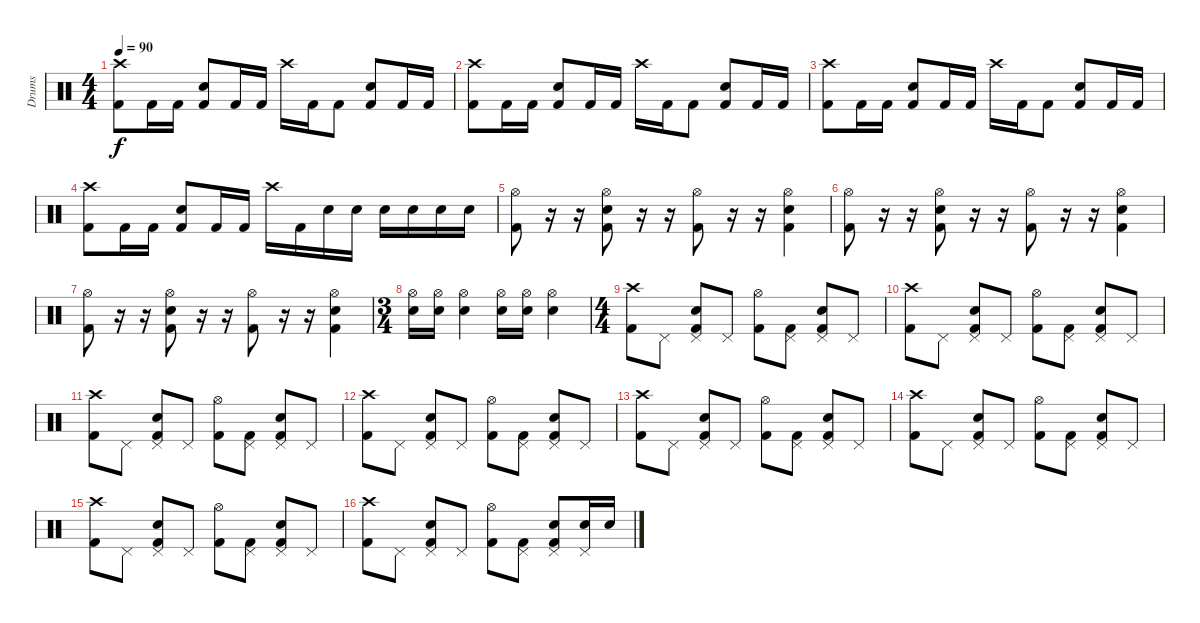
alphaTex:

\track ("Drums" "Drums") {instrument percussion}
\staff {score}
\articulation defaults
\ts (4 4)
\tempo 90
\clef neutral
\ks c
("Crash high (hit)" "Kick (hit) 2").8{dy f} "Kick (hit) 2".16 "Kick (hit) 2".16 ("Electric Snare (hit)" "Kick (hit) 2").8 "Kick (hit) 2".16 "Kick (hit) 2".16 "Crash high (hit)".16 "Kick (hit) 2".16 "Kick (hit) 2".8 ("Snare (hit) 2" "Kick (hit) 2").8 "Kick (hit) 2".16 "Kick (hit) 2".16 |
("Crash high (hit)" "Kick (hit) 2").8 "Kick (hit) 2".16 "Kick (hit) 2".16 ("Electric Snare (hit)" "Kick (hit) 2").8 "Kick (hit) 2".16 "Kick (hit) 2".16 "Crash high (hit)".16 "Kick (hit) 2".16 "Kick (hit) 2".8 ("Snare (hit) 2" "Kick (hit) 2").8 "Kick (hit) 2".16 "Kick (hit) 2".16 |
("Crash high (hit)" "Kick (hit) 2").8 "Kick (hit) 2".16 "Kick (hit) 2".16 ("Electric Snare (hit)" "Kick (hit) 2").8 "Kick (hit) 2".16 "Kick (hit) 2".16 "Crash high (hit)".16 "Kick (hit) 2".16 "Kick (hit) 2".8 ("Snare (hit) 2" "Kick (hit) 2").8 "Kick (hit) 2".16 "Kick (hit) 2".16 |
("Crash high (hit)" "Kick (hit) 2").8 "Kick (hit) 2".16 "Kick (hit) 2".16 ("Electric Snare (hit)" "Kick (hit) 2").8 "Kick (hit) 2".16 "Kick (hit) 2".16 "Crash high (hit)".16 "Kick (hit) 2".16 "Electric Snare (hit)".16 "Electric Snare (hit)".16 "Electric Snare (hit)".16 "Electric Snare (hit)".16 "Electric Snare (hit)".16 "Electric Snare (hit)".16 |
("Hi-Hat (open)" "Kick (hit) 2").8 r.16 r.16 ("Hi-Hat (open)" "Electric Snare (hit)" "Kick (hit) 2").8 r.16 r.16 ("Hi-Hat (open)" "Kick (hit) 2").8 r.16 r.16 ("Hi-Hat (open)" "Electric Snare (hit)" "Kick (hit) 2").4 |
("Hi-Hat (open)" "Kick (hit) 2").8 r.16 r.16 ("Hi-Hat (open)" "Electric Snare (hit)" "Kick (hit) 2").8 r.16 r.16 ("Hi-Hat (open)" "Kick (hit) 2").8 r.16 r.16 ("Hi-Hat (open)" "Electric Snare (hit)" "Kick (hit) 2").4 |
("Hi-Hat (open)" "Kick (hit) 2").8 r.16 r.16 ("Hi-Hat (open)" "Electric Snare (hit)" "Kick (hit) 2").8 r.16 r.16 ("Hi-Hat (open)" "Kick (hit) 2").8 r.16 r.16 ("Hi-Hat (open)" "Electric Snare (hit)" "Kick (hit) 2").4 |
\ts (3 4)
("Hi-Hat (open)" "Electric Snare (hit)").16 ("Hi-Hat (open)" "Electric Snare (hit)").16 ("Hi-Hat (open)" "Electric Snare (hit)").4 ("Hi-Hat (open)" "Electric Snare (hit)").16 ("Hi-Hat (open)" "Electric Snare (hit)").16 ("Hi-Hat (open)" "Electric Snare (hit)").4 |
\ts (4 4)
("Crash high (hit)" "Kick (hit) 2").8 "Pedal Hi-Hat (hit)".8 ("Pedal Hi-Hat (hit)" "Electric Snare (hit)" "Kick (hit) 2").8 "Pedal Hi-Hat (hit)".8 ("Hi-Hat (open)" "Kick (hit) 2").8 ("Pedal Hi-Hat (hit)" "Kick (hit) 2").8 ("Pedal Hi-Hat (hit)" "Electric Snare (hit)" "Kick (hit) 2").8 "Pedal Hi-Hat (hit)".8 |
("Crash high (hit)" "Kick (hit) 2").8 "Pedal Hi-Hat (hit)".8 ("Pedal Hi-Hat (hit)" "Electric Snare (hit)" "Kick (hit) 2").8 "Pedal Hi-Hat (hit)".8 ("Hi-Hat (open)" "Kick (hit) 2").8 ("Pedal Hi-Hat (hit)" "Kick (hit) 2").8 ("Pedal Hi-Hat (hit)" "Electric Snare (hit)" "Kick (hit) 2").8 "Pedal Hi-Hat (hit)".8 |
("Crash high (hit)" "Kick (hit) 2").8 "Pedal Hi-Hat (hit)".8 ("Pedal Hi-Hat (hit)" "Electric Snare (hit)" "Kick (hit) 2").8 "Pedal Hi-Hat (hit)".8 ("Hi-Hat (open)" "Kick (hit) 2").8 ("Pedal Hi-Hat (hit)" "Kick (hit) 2").8 ("Pedal Hi-Hat (hit)" "Electric Snare (hit)" "Kick (hit) 2").8 "Pedal Hi-Hat (hit)".8 |
("Crash high (hit)" "Kick (hit) 2").8 "Pedal Hi-Hat (hit)".8 ("Pedal Hi-Hat (hit)" "Electric Snare (hit)" "Kick (hit) 2").8 "Pedal Hi-Hat (hit)".8 ("Hi-Hat (open)" "Kick (hit) 2").8 ("Pedal Hi-Hat (hit)" "Kick (hit) 2").8 ("Pedal Hi-Hat (hit)" "Electric Snare (hit)" "Kick (hit) 2").8 "Pedal Hi-Hat (hit)".8 |
("Crash high (hit)" "Kick (hit) 2").8 "Pedal Hi-Hat (hit)".8 ("Pedal Hi-Hat (hit)" "Electric Snare (hit)" "Kick (hit) 2").8 "Pedal Hi-Hat (hit)".8 ("Hi-Hat (open)" "Kick (hit) 2").8 ("Pedal Hi-Hat (hit)" "Kick (hit) 2").8 ("Pedal Hi-Hat (hit)" "Electric Snare (hit)" "Kick (hit) 2").8 "Pedal Hi-Hat (hit)".8 |
("Crash high (hit)" "Kick (hit) 2").8 "Pedal Hi-Hat (hit)".8 ("Pedal Hi-Hat (hit)" "Electric Snare (hit)" "Kick (hit) 2").8 "Pedal Hi-Hat (hit)".8 ("Hi-Hat (open)" "Kick (hit) 2").8 ("Pedal Hi-Hat (hit)" "Kick (hit) 2").8 ("Pedal Hi-Hat (hit)" "Electric Snare (hit)" "Kick (hit) 2").8 "Pedal Hi-Hat (hit)".8 |
("Crash high (hit)" "Kick (hit) 2").8 "Pedal Hi-Hat (hit)".8 ("Pedal Hi-Hat (hit)" "Electric Snare (hit)" "Kick (hit) 2").8 "Pedal Hi-Hat (hit)".8 ("Hi-Hat (open)" "Kick (hit) 2").8 ("Pedal Hi-Hat (hit)" "Kick (hit) 2").8 ("Pedal Hi-Hat (hit)" "Electric Snare (hit)" "Kick (hit) 2").8 "Pedal Hi-Hat (hit)".8 |
("Crash high (hit)" "Kick (hit) 2").8 "Pedal Hi-Hat (hit)".8 ("Pedal Hi-Hat (hit)" "Electric Snare (hit)" "Kick (hit) 2").8 "Pedal Hi-Hat (hit)".8 ("Hi-Hat (open)" "Kick (hit) 2").8 ("Pedal Hi-Hat (hit)" "Kick (hit) 2").8 ("Pedal Hi-Hat (hit)" "Electric Snare (hit)" "Kick (hit) 2").8 ("Pedal Hi-Hat (hit)" "Electric Snare (hit)").16 "Electric Snare (hit)".16
